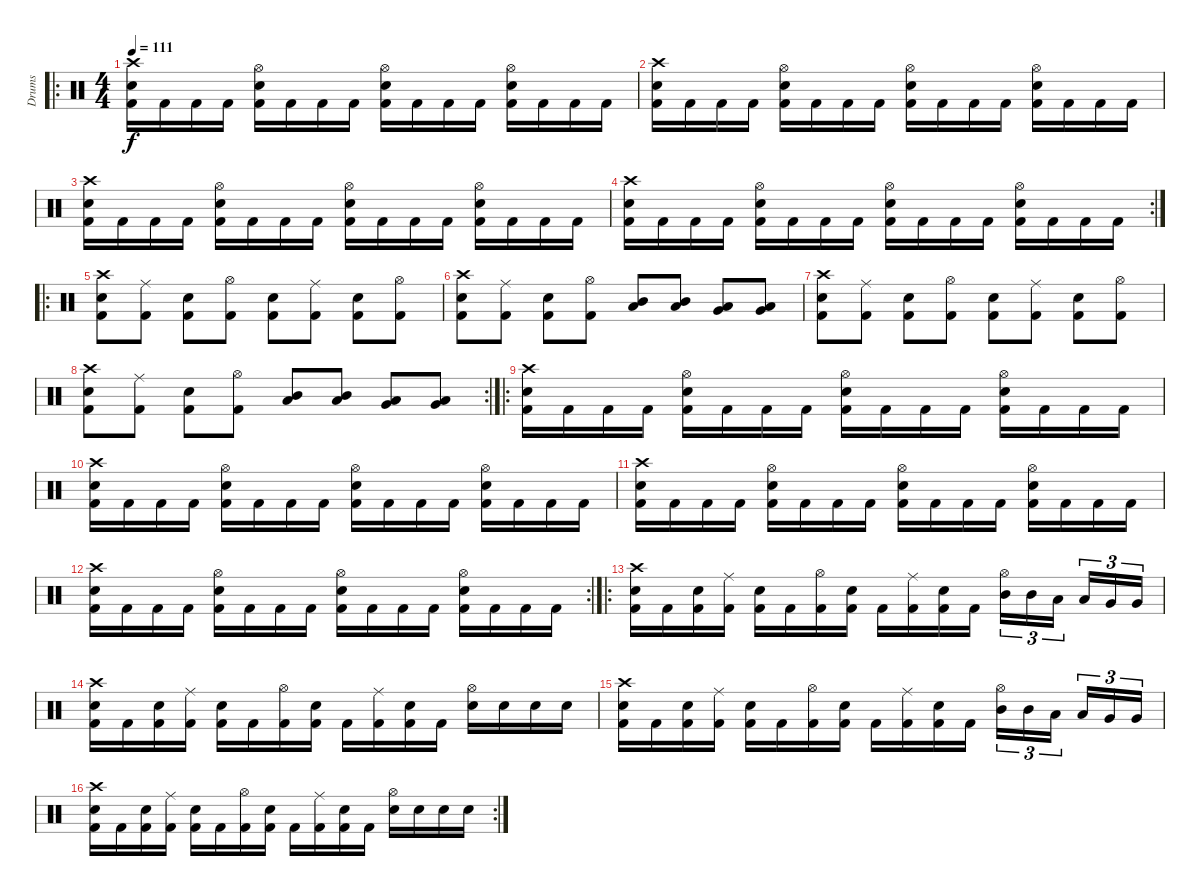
\track ("Drums" "Drums") {instrument percussion}
\staff {score}
\articulation defaults
\ro
\ts (4 4)
\tempo 111
\clef neutral
\ks c
("Crash high (hit)" "Electric Snare (hit)" "Kick (hit) 2").16{dy f} "Kick (hit) 2".16 "Kick (hit) 2".16 "Kick (hit) 2".16 ("Hi-Hat (open)" "Electric Snare (hit)" "Kick (hit) 2").16 "Kick (hit) 2".16 "Kick (hit) 2".16 "Kick (hit) 2".16 ("Hi-Hat (open)" "Electric Snare (hit)" "Kick (hit) 2").16 "Kick (hit) 2".16 "Kick (hit) 2".16 "Kick (hit) 2".16 ("Hi-Hat (open)" "Electric Snare (hit)" "Kick (hit) 2").16 "Kick (hit) 2".16 "Kick (hit) 2".16 "Kick (hit) 2".16 |
("Crash high (hit)" "Electric Snare (hit)" "Kick (hit) 2").16 "Kick (hit) 2".16 "Kick (hit) 2".16 "Kick (hit) 2".16 ("Hi-Hat (open)" "Electric Snare (hit)" "Kick (hit) 2").16 "Kick (hit) 2".16 "Kick (hit) 2".16 "Kick (hit) 2".16 ("Hi-Hat (open)" "Electric Snare (hit)" "Kick (hit) 2").16 "Kick (hit) 2".16 "Kick (hit) 2".16 "Kick (hit) 2".16 ("Hi-Hat (open)" "Electric Snare (hit)" "Kick (hit) 2").16 "Kick (hit) 2".16 "Kick (hit) 2".16 "Kick (hit) 2".16 |
("Crash high (hit)" "Electric Snare (hit)" "Kick (hit) 2").16 "Kick (hit) 2".16 "Kick (hit) 2".16 "Kick (hit) 2".16 ("Hi-Hat (open)" "Electric Snare (hit)" "Kick (hit) 2").16 "Kick (hit) 2".16 "Kick (hit) 2".16 "Kick (hit) 2".16 ("Hi-Hat (open)" "Electric Snare (hit)" "Kick (hit) 2").16 "Kick (hit) 2".16 "Kick (hit) 2".16 "Kick (hit) 2".16 ("Hi-Hat (open)" "Electric Snare (hit)" "Kick (hit) 2").16 "Kick (hit) 2".16 "Kick (hit) 2".16 "Kick (hit) 2".16 |
\rc 2
("Crash high (hit)" "Electric Snare (hit)" "Kick (hit) 2").16 "Kick (hit) 2".16 "Kick (hit) 2".16 "Kick (hit) 2".16 ("Hi-Hat (open)" "Electric Snare (hit)" "Kick (hit) 2").16 "Kick (hit) 2".16 "Kick (hit) 2".16 "Kick (hit) 2".16 ("Hi-Hat (open)" "Electric Snare (hit)" "Kick (hit) 2").16 "Kick (hit) 2".16 "Kick (hit) 2".16 "Kick (hit) 2".16 ("Hi-Hat (open)" "Electric Snare (hit)" "Kick (hit) 2").16 "Kick (hit) 2".16 "Kick (hit) 2".16 "Kick (hit) 2".16 |
\ro
("Crash high (hit)" "Electric Snare (hit)" "Kick (hit) 2").8 ("Ride (middle)" "Kick (hit) 2").8 ("Electric Snare (hit)" "Kick (hit) 2").8 ("Hi-Hat (open)" "Kick (hit) 2").8 ("Electric Snare (hit)" "Kick (hit) 2").8 ("Ride (middle)" "Kick (hit) 2").8 ("Electric Snare (hit)" "Kick (hit) 2").8 ("Hi-Hat (open)" "Kick (hit) 2").8 |
("Crash high (hit)" "Electric Snare (hit)" "Kick (hit) 2").8 ("Ride (middle)" "Kick (hit) 2").8 ("Electric Snare (hit)" "Kick (hit) 2").8 ("Hi-Hat (open)" "Kick (hit) 2").8 ("Low Tom (hit)" "Mid Tom (hit)").8 ("Low Tom (hit)" "Mid Tom (hit)").8 ("Very Low Tom (hit)" "Low Floor Tom (hit)").8 ("Very Low Tom (hit)" "Low Floor Tom (hit)").8 |
("Crash high (hit)" "Electric Snare (hit)" "Kick (hit) 2").8 ("Ride (middle)" "Kick (hit) 2").8 ("Electric Snare (hit)" "Kick (hit) 2").8 ("Hi-Hat (open)" "Kick (hit) 2").8 ("Electric Snare (hit)" "Kick (hit) 2").8 ("Ride (middle)" "Kick (hit) 2").8 ("Electric Snare (hit)" "Kick (hit) 2").8 ("Hi-Hat (open)" "Kick (hit) 2").8 |
\rc 2
("Crash high (hit)" "Electric Snare (hit)" "Kick (hit) 2").8 ("Ride (middle)" "Kick (hit) 2").8 ("Electric Snare (hit)" "Kick (hit) 2").8 ("Hi-Hat (open)" "Kick (hit) 2").8 ("Low Tom (hit)" "Mid Tom (hit)").8 ("Low Tom (hit)" "Mid Tom (hit)").8 ("Very Low Tom (hit)" "Low Floor Tom (hit)").8 ("Very Low Tom (hit)" "Low Floor Tom (hit)").8 |
\ro
("Crash high (hit)" "Electric Snare (hit)" "Kick (hit) 2").16 "Kick (hit) 2".16 "Kick (hit) 2".16 "Kick (hit) 2".16 ("Hi-Hat (open)" "Electric Snare (hit)" "Kick (hit) 2").16 "Kick (hit) 2".16 "Kick (hit) 2".16 "Kick (hit) 2".16 ("Hi-Hat (open)" "Electric Snare (hit)" "Kick (hit) 2").16 "Kick (hit) 2".16 "Kick (hit) 2".16 "Kick (hit) 2".16 ("Hi-Hat (open)" "Electric Snare (hit)" "Kick (hit) 2").16 "Kick (hit) 2".16 "Kick (hit) 2".16 "Kick (hit) 2".16 |
("Crash high (hit)" "Electric Snare (hit)" "Kick (hit) 2").16 "Kick (hit) 2".16 "Kick (hit) 2".16 "Kick (hit) 2".16 ("Hi-Hat (open)" "Electric Snare (hit)" "Kick (hit) 2").16 "Kick (hit) 2".16 "Kick (hit) 2".16 "Kick (hit) 2".16 ("Hi-Hat (open)" "Electric Snare (hit)" "Kick (hit) 2").16 "Kick (hit) 2".16 "Kick (hit) 2".16 "Kick (hit) 2".16 ("Hi-Hat (open)" "Electric Snare (hit)" "Kick (hit) 2").16 "Kick (hit) 2".16 "Kick (hit) 2".16 "Kick (hit) 2".16 |
("Crash high (hit)" "Electric Snare (hit)" "Kick (hit) 2").16 "Kick (hit) 2".16 "Kick (hit) 2".16 "Kick (hit) 2".16 ("Hi-Hat (open)" "Electric Snare (hit)" "Kick (hit) 2").16 "Kick (hit) 2".16 "Kick (hit) 2".16 "Kick (hit) 2".16 ("Hi-Hat (open)" "Electric Snare (hit)" "Kick (hit) 2").16 "Kick (hit) 2".16 "Kick (hit) 2".16 "Kick (hit) 2".16 ("Hi-Hat (open)" "Electric Snare (hit)" "Kick (hit) 2").16 "Kick (hit) 2".16 "Kick (hit) 2".16 "Kick (hit) 2".16 |
\rc 2
("Crash high (hit)" "Electric Snare (hit)" "Kick (hit) 2").16 "Kick (hit) 2".16 "Kick (hit) 2".16 "Kick (hit) 2".16 ("Hi-Hat (open)" "Electric Snare (hit)" "Kick (hit) 2").16 "Kick (hit) 2".16 "Kick (hit) 2".16 "Kick (hit) 2".16 ("Hi-Hat (open)" "Electric Snare (hit)" "Kick (hit) 2").16 "Kick (hit) 2".16 "Kick (hit) 2".16 "Kick (hit) 2".16 ("Hi-Hat (open)" "Electric Snare (hit)" "Kick (hit) 2").16 "Kick (hit) 2".16 "Kick (hit) 2".16 "Kick (hit) 2".16 |
\ro
("Crash high (hit)" "Electric Snare (hit)" "Kick (hit) 2").16 "Kick (hit) 2".16 ("Electric Snare (hit)" "Kick (hit) 2").16 ("Ride (middle)" "Kick (hit) 2").16 ("Electric Snare (hit)" "Kick (hit) 2").16 "Kick (hit) 2".16 ("Hi-Hat (open)" "Kick (hit) 2").16 ("Electric Snare (hit)" "Kick (hit) 2").16 "Kick (hit) 2".16 ("Ride (middle)" "Kick (hit) 2").16 ("Electric Snare (hit)" "Kick (hit) 2").16 "Kick (hit) 2".16 ("Hi-Hat (open)" "Mid Tom (hit)").16{tu (3 2)} "Mid Tom (hit)".16{tu (3 2)} "Low Tom (hit)".16{tu (3 2)} "Low Tom (hit)".16{tu (3 2)} "Very Low Tom (hit)".16{tu (3 2)} "Very Low Tom (hit)".16{tu (3 2)} |
("Crash high (hit)" "Electric Snare (hit)" "Kick (hit) 2").16 "Kick (hit) 2".16 ("Electric Snare (hit)" "Kick (hit) 2").16 ("Ride (middle)" "Kick (hit) 2").16 ("Electric Snare (hit)" "Kick (hit) 2").16 "Kick (hit) 2".16 ("Hi-Hat (open)" "Kick (hit) 2").16 ("Electric Snare (hit)" "Kick (hit) 2").16 "Kick (hit) 2".16 ("Ride (middle)" "Kick (hit) 2").16 ("Electric Snare (hit)" "Kick (hit) 2").16 "Kick (hit) 2".16 ("Hi-Hat (open)" "Electric Snare (hit)").16 "Electric Snare (hit)".16 "Electric Snare (hit)".16 "Electric Snare (hit)".16 |
("Crash high (hit)" "Electric Snare (hit)" "Kick (hit) 2").16 "Kick (hit) 2".16 ("Electric Snare (hit)" "Kick (hit) 2").16 ("Ride (middle)" "Kick (hit) 2").16 ("Electric Snare (hit)" "Kick (hit) 2").16 "Kick (hit) 2".16 ("Hi-Hat (open)" "Kick (hit) 2").16 ("Electric Snare (hit)" "Kick (hit) 2").16 "Kick (hit) 2".16 ("Ride (middle)" "Kick (hit) 2").16 ("Electric Snare (hit)" "Kick (hit) 2").16 "Kick (hit) 2".16 ("Hi-Hat (open)" "Mid Tom (hit)").16{tu (3 2)} "Mid Tom (hit)".16{tu (3 2)} "Low Tom (hit)".16{tu (3 2)} "Low Tom (hit)".16{tu (3 2)} "Very Low Tom (hit)".16{tu (3 2)} "Very Low Tom (hit)".16{tu (3 2)} |
\rc 2
("Crash high (hit)" "Electric Snare (hit)" "Kick (hit) 2").16 "Kick (hit) 2".16 ("Electric Snare (hit)" "Kick (hit) 2").16 ("Ride (middle)" "Kick (hit) 2").16 ("Electric Snare (hit)" "Kick (hit) 2").16 "Kick (hit) 2".16 ("Hi-Hat (open)" "Kick (hit) 2").16 ("Electric Snare (hit)" "Kick (hit) 2").16 "Kick (hit) 2".16 ("Ride (middle)" "Kick (hit) 2").16 ("Electric Snare (hit)" "Kick (hit) 2").16 "Kick (hit) 2".16 ("Hi-Hat (open)" "Electric Snare (hit)").16 "Electric Snare (hit)".16 "Electric Snare (hit)".16 "Electric Snare (hit)".16
